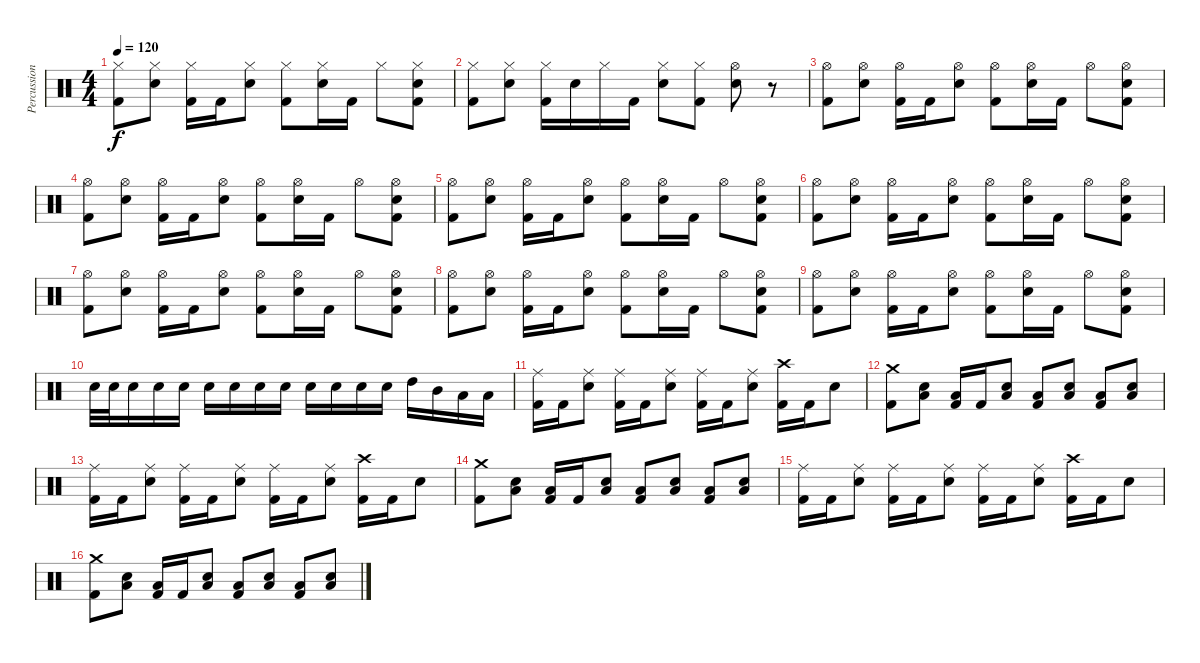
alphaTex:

\track ("Percussion" "Percussion") {instrument percussion}
\staff {score}
\articulation defaults
\ts (4 4)
\tempo 120
\clef neutral
\ks c
("Hi-Hat (closed)" "Kick (hit) 2").8{dy f} ("Hi-Hat (closed)" "Electric Snare (hit)").8 ("Hi-Hat (closed)" "Kick (hit) 2").16 "Kick (hit) 2".16 ("Hi-Hat (closed)" "Electric Snare (hit)").8 ("Hi-Hat (closed)" "Kick (hit) 2").8 ("Hi-Hat (closed)" "Electric Snare (hit)").16 "Kick (hit) 2".16 "Hi-Hat (closed)".8 ("Hi-Hat (closed)" "Electric Snare (hit)" "Kick (hit) 2").8 |
("Hi-Hat (closed)" "Kick (hit) 2").8 ("Hi-Hat (closed)" "Electric Snare (hit)").8 ("Hi-Hat (closed)" "Kick (hit) 2").16 "Electric Snare (hit)".16 "Hi-Hat (closed)".16 "Kick (hit) 2".16 ("Hi-Hat (closed)" "Electric Snare (hit)").8 ("Hi-Hat (closed)" "Kick (hit) 2").8 ("Hi-Hat (open)" "Electric Snare (hit)").8 r.8 |
("Hi-Hat (open)" "Kick (hit) 2").8 ("Hi-Hat (open)" "Electric Snare (hit)").8 ("Hi-Hat (open)" "Kick (hit) 2").16 "Kick (hit) 2".16 ("Hi-Hat (open)" "Electric Snare (hit)").8 ("Hi-Hat (open)" "Kick (hit) 2").8 ("Hi-Hat (open)" "Electric Snare (hit)").16 "Kick (hit) 2".16 "Hi-Hat (open)".8 ("Hi-Hat (open)" "Electric Snare (hit)" "Kick (hit) 2").8 |
("Hi-Hat (open)" "Kick (hit) 2").8 ("Hi-Hat (open)" "Electric Snare (hit)").8 ("Hi-Hat (open)" "Kick (hit) 2").16 "Kick (hit) 2".16 ("Hi-Hat (open)" "Electric Snare (hit)").8 ("Hi-Hat (open)" "Kick (hit) 2").8 ("Hi-Hat (open)" "Electric Snare (hit)").16 "Kick (hit) 2".16 "Hi-Hat (open)".8 ("Hi-Hat (open)" "Electric Snare (hit)" "Kick (hit) 2").8 |
("Hi-Hat (open)" "Kick (hit) 2").8 ("Hi-Hat (open)" "Electric Snare (hit)").8 ("Hi-Hat (open)" "Kick (hit) 2").16 "Kick (hit) 2".16 ("Hi-Hat (open)" "Electric Snare (hit)").8 ("Hi-Hat (open)" "Kick (hit) 2").8 ("Hi-Hat (open)" "Electric Snare (hit)").16 "Kick (hit) 2".16 "Hi-Hat (open)".8 ("Hi-Hat (open)" "Electric Snare (hit)" "Kick (hit) 2").8 |
("Hi-Hat (open)" "Kick (hit) 2").8 ("Hi-Hat (open)" "Electric Snare (hit)").8 ("Hi-Hat (open)" "Kick (hit) 2").16 "Kick (hit) 2".16 ("Hi-Hat (open)" "Electric Snare (hit)").8 ("Hi-Hat (open)" "Kick (hit) 2").8 ("Hi-Hat (open)" "Electric Snare (hit)").16 "Kick (hit) 2".16 "Hi-Hat (open)".8 ("Hi-Hat (open)" "Electric Snare (hit)" "Kick (hit) 2").8 |
("Hi-Hat (open)" "Kick (hit) 2").8 ("Hi-Hat (open)" "Electric Snare (hit)").8 ("Hi-Hat (open)" "Kick (hit) 2").16 "Kick (hit) 2".16 ("Hi-Hat (open)" "Electric Snare (hit)").8 ("Hi-Hat (open)" "Kick (hit) 2").8 ("Hi-Hat (open)" "Electric Snare (hit)").16 "Kick (hit) 2".16 "Hi-Hat (open)".8 ("Hi-Hat (open)" "Electric Snare (hit)" "Kick (hit) 2").8 |
("Hi-Hat (open)" "Kick (hit) 2").8 ("Hi-Hat (open)" "Electric Snare (hit)").8 ("Hi-Hat (open)" "Kick (hit) 2").16 "Kick (hit) 2".16 ("Hi-Hat (open)" "Electric Snare (hit)").8 ("Hi-Hat (open)" "Kick (hit) 2").8 ("Hi-Hat (open)" "Electric Snare (hit)").16 "Kick (hit) 2".16 "Hi-Hat (open)".8 ("Hi-Hat (open)" "Electric Snare (hit)" "Kick (hit) 2").8 |
("Hi-Hat (open)" "Kick (hit) 2").8 ("Hi-Hat (open)" "Electric Snare (hit)").8 ("Hi-Hat (open)" "Kick (hit) 2").16 "Kick (hit) 2".16 ("Hi-Hat (open)" "Electric Snare (hit)").8 ("Hi-Hat (open)" "Kick (hit) 2").8 ("Hi-Hat (open)" "Electric Snare (hit)").16 "Kick (hit) 2".16 "Hi-Hat (open)".8 ("Hi-Hat (open)" "Electric Snare (hit)" "Kick (hit) 2").8 |
"Electric Snare (hit)".32 "Electric Snare (hit)".32 "Electric Snare (hit)".16 "Electric Snare (hit)".16 "Electric Snare (hit)".16 "Electric Snare (hit)".16 "Electric Snare (hit)".16 "Electric Snare (hit)".16 "Electric Snare (hit)".16 "Electric Snare (hit)".16 "Electric Snare (hit)".16 "Electric Snare (hit)".16 "Electric Snare (hit)".16 "High Tom (hit)".16 "Mid Tom (hit)".16 "Low Tom (hit)".16 "Low Tom (hit)".16 |
("Ride (middle)" "Kick (hit) 2").16 "Kick (hit) 2".16 ("Ride (middle)" "Electric Snare (hit)").8 ("Ride (middle)" "Kick (hit) 2").16 "Kick (hit) 2".16 ("Ride (middle)" "Electric Snare (hit)").8 ("Ride (middle)" "Kick (hit) 2").16 "Kick (hit) 2".16 ("Ride (middle)" "Electric Snare (hit)").8 ("Crash high (hit)" "Kick (hit) 2").16 "Kick (hit) 2".16 "Electric Snare (hit)".8 |
("Crash medium (hit)" "Kick (hit) 2").8 ("Low Tom (hit)" "Electric Snare (hit)").8 ("Low Tom (hit)" "Kick (hit) 2").16 "Kick (hit) 2".16 ("Low Tom (hit)" "Electric Snare (hit)").8 ("Low Tom (hit)" "Kick (hit) 2").8 ("Low Tom (hit)" "Electric Snare (hit)").8 ("Low Tom (hit)" "Kick (hit) 2").8 ("Low Tom (hit)" "Electric Snare (hit)").8 |
("Ride (middle)" "Kick (hit) 2").16 "Kick (hit) 2".16 ("Ride (middle)" "Electric Snare (hit)").8 ("Ride (middle)" "Kick (hit) 2").16 "Kick (hit) 2".16 ("Ride (middle)" "Electric Snare (hit)").8 ("Ride (middle)" "Kick (hit) 2").16 "Kick (hit) 2".16 ("Ride (middle)" "Electric Snare (hit)").8 ("Crash high (hit)" "Kick (hit) 2").16 "Kick (hit) 2".16 "Electric Snare (hit)".8 |
("Crash medium (hit)" "Kick (hit) 2").8 ("Low Tom (hit)" "Electric Snare (hit)").8 ("Low Tom (hit)" "Kick (hit) 2").16 "Kick (hit) 2".16 ("Low Tom (hit)" "Electric Snare (hit)").8 ("Low Tom (hit)" "Kick (hit) 2").8 ("Low Tom (hit)" "Electric Snare (hit)").8 ("Low Tom (hit)" "Kick (hit) 2").8 ("Low Tom (hit)" "Electric Snare (hit)").8 |
("Ride (middle)" "Kick (hit) 2").16 "Kick (hit) 2".16 ("Ride (middle)" "Electric Snare (hit)").8 ("Ride (middle)" "Kick (hit) 2").16 "Kick (hit) 2".16 ("Ride (middle)" "Electric Snare (hit)").8 ("Ride (middle)" "Kick (hit) 2").16 "Kick (hit) 2".16 ("Ride (middle)" "Electric Snare (hit)").8 ("Crash high (hit)" "Kick (hit) 2").16 "Kick (hit) 2".16 "Electric Snare (hit)".8 |
("Crash medium (hit)" "Kick (hit) 2").8 ("Low Tom (hit)" "Electric Snare (hit)").8 ("Low Tom (hit)" "Kick (hit) 2").16 "Kick (hit) 2".16 ("Low Tom (hit)" "Electric Snare (hit)").8 ("Low Tom (hit)" "Kick (hit) 2").8 ("Low Tom (hit)" "Electric Snare (hit)").8 ("Low Tom (hit)" "Kick (hit) 2").8 ("Low Tom (hit)" "Electric Snare (hit)").8
